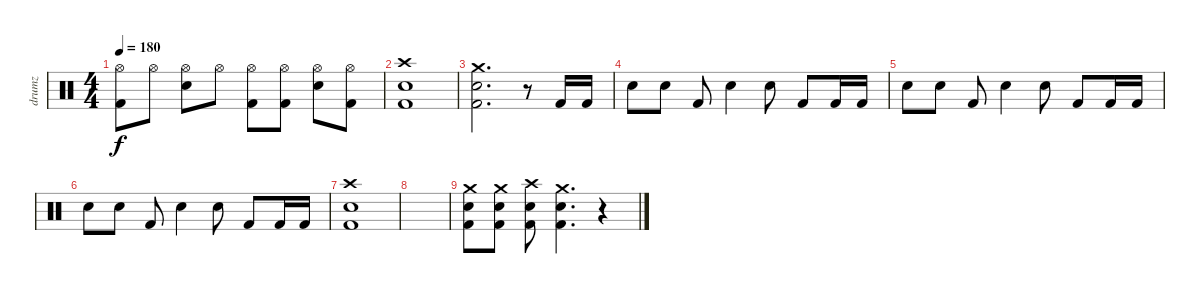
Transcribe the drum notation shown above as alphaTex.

\track ("drumz" "drumz") {instrument percussion}
\staff {score}
\articulation defaults
\ts (4 4)
\tempo 180
\clef neutral
\ks c
("Hi-Hat (open)" "Kick (hit) 2").8{dy f} "Hi-Hat (open)".8 ("Hi-Hat (open)" "Electric Snare (hit)").8 "Hi-Hat (open)".8 ("Hi-Hat (open)" "Kick (hit) 2").8 ("Hi-Hat (open)" "Kick (hit) 2").8 ("Hi-Hat (open)" "Electric Snare (hit)").8 ("Hi-Hat (open)" "Kick (hit) 2").8 |
("Crash high (hit)" "Electric Snare (hit)" "Kick (hit) 2").1 |
("Crash medium (hit)" "Electric Snare (hit)" "Kick (hit) 2").2{d} r.8 "Kick (hit) 2".16 "Kick (hit) 2".16 |
"Electric Snare (hit)".8 "Electric Snare (hit)".8 "Kick (hit) 2".8 "Electric Snare (hit)".4 "Electric Snare (hit)".8 "Kick (hit) 2".8 "Kick (hit) 2".16 "Kick (hit) 2".16 |
"Electric Snare (hit)".8 "Electric Snare (hit)".8 "Kick (hit) 2".8 "Electric Snare (hit)".4 "Electric Snare (hit)".8 "Kick (hit) 2".8 "Kick (hit) 2".16 "Kick (hit) 2".16 |
"Electric Snare (hit)".8 "Electric Snare (hit)".8 "Kick (hit) 2".8 "Electric Snare (hit)".4 "Electric Snare (hit)".8 "Kick (hit) 2".8 "Kick (hit) 2".16 "Kick (hit) 2".16 |
("Crash high (hit)" "Electric Snare (hit)" "Kick (hit) 2").1 |
|
("Crash medium (hit)" "Electric Snare (hit)" "Kick (hit) 2").8 ("Crash medium (hit)" "Electric Snare (hit)" "Kick (hit) 2").8 ("Crash high (hit)" "Electric Snare (hit)" "Kick (hit) 2").8 ("Crash medium (hit)" "Electric Snare (hit)" "Kick (hit) 2").4{d} r.4
